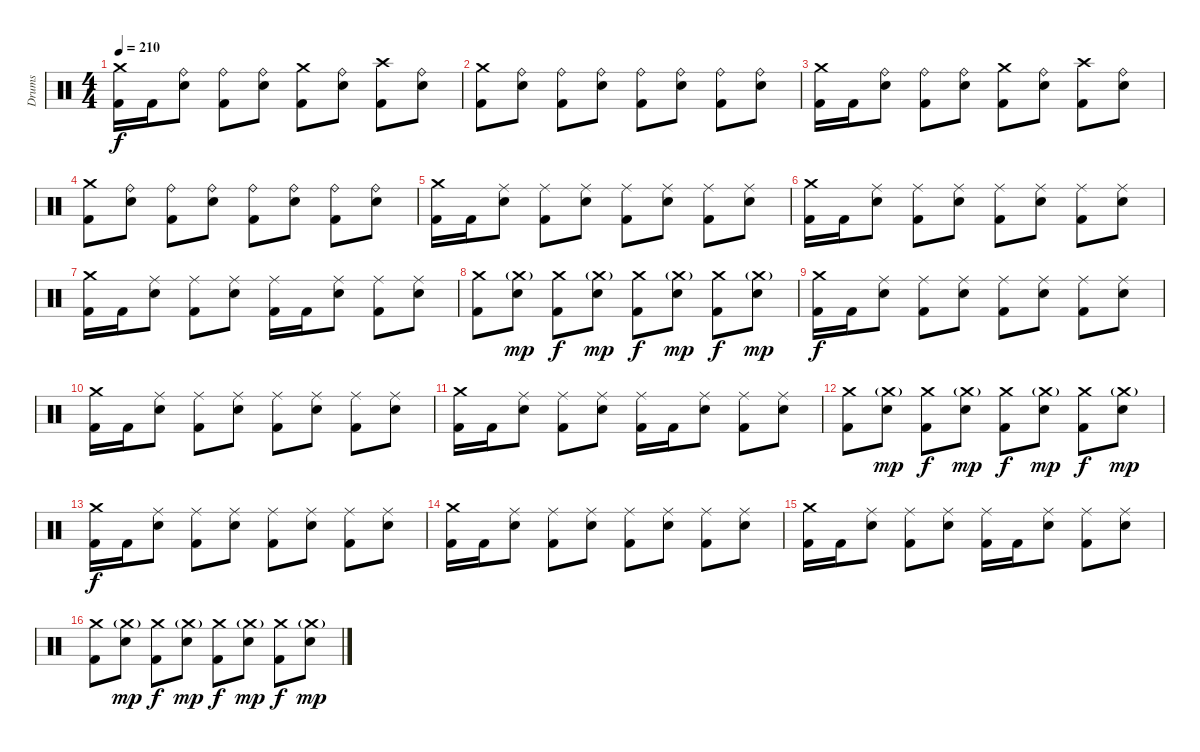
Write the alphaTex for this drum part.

\track ("Drums" "Drums") {instrument percussion}
\staff {score}
\articulation defaults
\ts (4 4)
\tempo 210
\clef neutral
\ks c
("Kick (hit) 2" "Crash medium (hit)").16{dy f} "Kick (hit) 2".16 ("Snare (hit) 2" "Ride (bell)").8 ("Kick (hit) 2" "Ride (bell)").8 ("Snare (hit) 2" "Ride (bell)").8 ("Kick (hit) 2" "Crash medium (hit)").8 ("Snare (hit) 2" "Ride (bell)").8 ("Kick (hit) 2" "Crash high (hit)").8 ("Snare (hit) 2" "Ride (bell)").8 |
("Kick (hit) 2" "Crash medium (hit)").8 ("Snare (hit) 2" "Ride (bell)").8 ("Kick (hit) 2" "Ride (bell)").8 ("Snare (hit) 2" "Ride (bell)").8 ("Kick (hit) 2" "Ride (bell)").8 ("Snare (hit) 2" "Ride (bell)").8 ("Kick (hit) 2" "Ride (bell)").8 ("Snare (hit) 2" "Ride (bell)").8 |
("Kick (hit) 2" "Crash medium (hit)").16 "Kick (hit) 2".16 ("Snare (hit) 2" "Ride (bell)").8 ("Kick (hit) 2" "Ride (bell)").8 ("Snare (hit) 2" "Ride (bell)").8 ("Kick (hit) 2" "Crash medium (hit)").8 ("Snare (hit) 2" "Ride (bell)").8 ("Kick (hit) 2" "Crash high (hit)").8 ("Snare (hit) 2" "Ride (bell)").8 |
("Kick (hit) 2" "Crash medium (hit)").8 ("Snare (hit) 2" "Ride (bell)").8 ("Kick (hit) 2" "Ride (bell)").8 ("Snare (hit) 2" "Ride (bell)").8 ("Kick (hit) 2" "Ride (bell)").8 ("Snare (hit) 2" "Ride (bell)").8 ("Kick (hit) 2" "Ride (bell)").8 ("Snare (hit) 2" "Ride (bell)").8 |
("Kick (hit) 2" "Crash medium (hit)").16 "Kick (hit) 2".16 ("Snare (hit) 2" "Ride (middle)").8 ("Kick (hit) 2" "Ride (middle)").8 ("Snare (hit) 2" "Ride (middle)").8 ("Kick (hit) 2" "Ride (middle)").8 ("Snare (hit) 2" "Ride (middle)").8 ("Kick (hit) 2" "Ride (middle)").8 ("Snare (hit) 2" "Ride (middle)").8 |
("Kick (hit) 2" "Crash medium (hit)").16 "Kick (hit) 2".16 ("Snare (hit) 2" "Ride (middle)").8 ("Kick (hit) 2" "Ride (middle)").8 ("Snare (hit) 2" "Ride (middle)").8 ("Kick (hit) 2" "Ride (middle)").8 ("Snare (hit) 2" "Ride (middle)").8 ("Kick (hit) 2" "Ride (middle)").8 ("Snare (hit) 2" "Ride (middle)").8 |
("Kick (hit) 2" "Crash medium (hit)").16 "Kick (hit) 2".16 ("Snare (hit) 2" "Ride (middle)").8 ("Kick (hit) 2" "Ride (middle)").8 ("Snare (hit) 2" "Ride (middle)").8 ("Kick (hit) 2" "Ride (middle)").16 "Kick (hit) 2".16 ("Snare (hit) 2" "Ride (middle)").8 ("Kick (hit) 2" "Ride (middle)").8 ("Snare (hit) 2" "Ride (middle)").8 |
("Kick (hit) 2" "Crash medium (hit)").8 ("Snare (hit) 2" "Crash medium (hit)"{g}).8{dy mp} ("Kick (hit) 2" "Crash medium (hit)").8{dy f} ("Snare (hit) 2" "Crash medium (hit)"{g}).8{dy mp} ("Kick (hit) 2" "Crash medium (hit)").8{dy f} ("Snare (hit) 2" "Crash medium (hit)"{g}).8{dy mp} ("Kick (hit) 2" "Crash medium (hit)").8{dy f} ("Snare (hit) 2" "Crash medium (hit)"{g}).8{dy mp} |
("Kick (hit) 2" "Crash medium (hit)").16{dy f} "Kick (hit) 2".16 ("Snare (hit) 2" "Ride (middle)").8 ("Kick (hit) 2" "Ride (middle)").8 ("Snare (hit) 2" "Ride (middle)").8 ("Kick (hit) 2" "Ride (middle)").8 ("Snare (hit) 2" "Ride (middle)").8 ("Kick (hit) 2" "Ride (middle)").8 ("Snare (hit) 2" "Ride (middle)").8 |
("Kick (hit) 2" "Crash medium (hit)").16 "Kick (hit) 2".16 ("Snare (hit) 2" "Ride (middle)").8 ("Kick (hit) 2" "Ride (middle)").8 ("Snare (hit) 2" "Ride (middle)").8 ("Kick (hit) 2" "Ride (middle)").8 ("Snare (hit) 2" "Ride (middle)").8 ("Kick (hit) 2" "Ride (middle)").8 ("Snare (hit) 2" "Ride (middle)").8 |
("Kick (hit) 2" "Crash medium (hit)").16 "Kick (hit) 2".16 ("Snare (hit) 2" "Ride (middle)").8 ("Kick (hit) 2" "Ride (middle)").8 ("Snare (hit) 2" "Ride (middle)").8 ("Kick (hit) 2" "Ride (middle)").16 "Kick (hit) 2".16 ("Snare (hit) 2" "Ride (middle)").8 ("Kick (hit) 2" "Ride (middle)").8 ("Snare (hit) 2" "Ride (middle)").8 |
("Kick (hit) 2" "Crash medium (hit)").8 ("Snare (hit) 2" "Crash medium (hit)"{g}).8{dy mp} ("Kick (hit) 2" "Crash medium (hit)").8{dy f} ("Snare (hit) 2" "Crash medium (hit)"{g}).8{dy mp} ("Kick (hit) 2" "Crash medium (hit)").8{dy f} ("Snare (hit) 2" "Crash medium (hit)"{g}).8{dy mp} ("Kick (hit) 2" "Crash medium (hit)").8{dy f} ("Snare (hit) 2" "Crash medium (hit)"{g}).8{dy mp} |
("Kick (hit) 2" "Crash medium (hit)").16{dy f} "Kick (hit) 2".16 ("Snare (hit) 2" "Ride (middle)").8 ("Kick (hit) 2" "Ride (middle)").8 ("Snare (hit) 2" "Ride (middle)").8 ("Kick (hit) 2" "Ride (middle)").8 ("Snare (hit) 2" "Ride (middle)").8 ("Kick (hit) 2" "Ride (middle)").8 ("Snare (hit) 2" "Ride (middle)").8 |
("Kick (hit) 2" "Crash medium (hit)").16 "Kick (hit) 2".16 ("Snare (hit) 2" "Ride (middle)").8 ("Kick (hit) 2" "Ride (middle)").8 ("Snare (hit) 2" "Ride (middle)").8 ("Kick (hit) 2" "Ride (middle)").8 ("Snare (hit) 2" "Ride (middle)").8 ("Kick (hit) 2" "Ride (middle)").8 ("Snare (hit) 2" "Ride (middle)").8 |
("Kick (hit) 2" "Crash medium (hit)").16 "Kick (hit) 2".16 ("Snare (hit) 2" "Ride (middle)").8 ("Kick (hit) 2" "Ride (middle)").8 ("Snare (hit) 2" "Ride (middle)").8 ("Kick (hit) 2" "Ride (middle)").16 "Kick (hit) 2".16 ("Snare (hit) 2" "Ride (middle)").8 ("Kick (hit) 2" "Ride (middle)").8 ("Snare (hit) 2" "Ride (middle)").8 |
("Kick (hit) 2" "Crash medium (hit)").8 ("Snare (hit) 2" "Crash medium (hit)"{g}).8{dy mp} ("Kick (hit) 2" "Crash medium (hit)").8{dy f} ("Snare (hit) 2" "Crash medium (hit)"{g}).8{dy mp} ("Kick (hit) 2" "Crash medium (hit)").8{dy f} ("Snare (hit) 2" "Crash medium (hit)"{g}).8{dy mp} ("Kick (hit) 2" "Crash medium (hit)").8{dy f} ("Snare (hit) 2" "Crash medium (hit)"{g}).8{dy mp}
